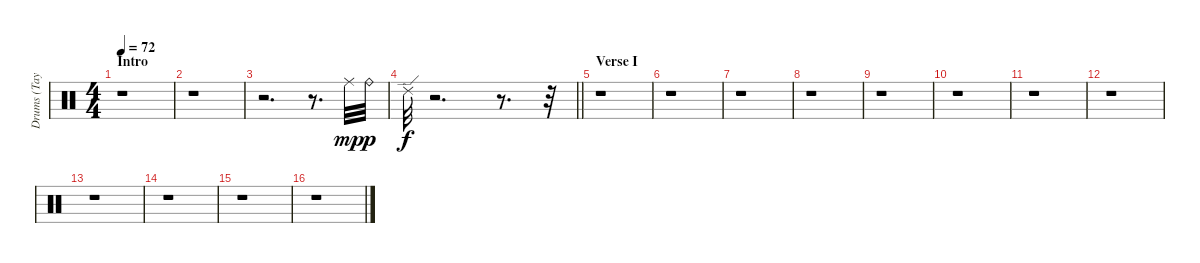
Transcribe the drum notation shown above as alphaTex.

\track ("Drums (Taylor)" "Drums (Tay") {instrument percussion}
\staff {score}
\articulation defaults
\ts (4 4)
\section ("" "Intro")
\tempo 72
\clef neutral
\ks c
r.1{dy mp} |
r.1 |
r.2{d} r.8{d} "Ride (middle)".32 "Ride (bell)".32{dy p} |
\barLineRight lightlight "Ride (edge) 2".32{dy f}
r.2{d} r.8{d} r.32 |
\section ("" "Verse I")
r.1 |
r.1 |
r.1 |
r.1 |
r.1 |
r.1 |
r.1 |
r.1 |
r.1 |
r.1 |
r.1 |
r.1
